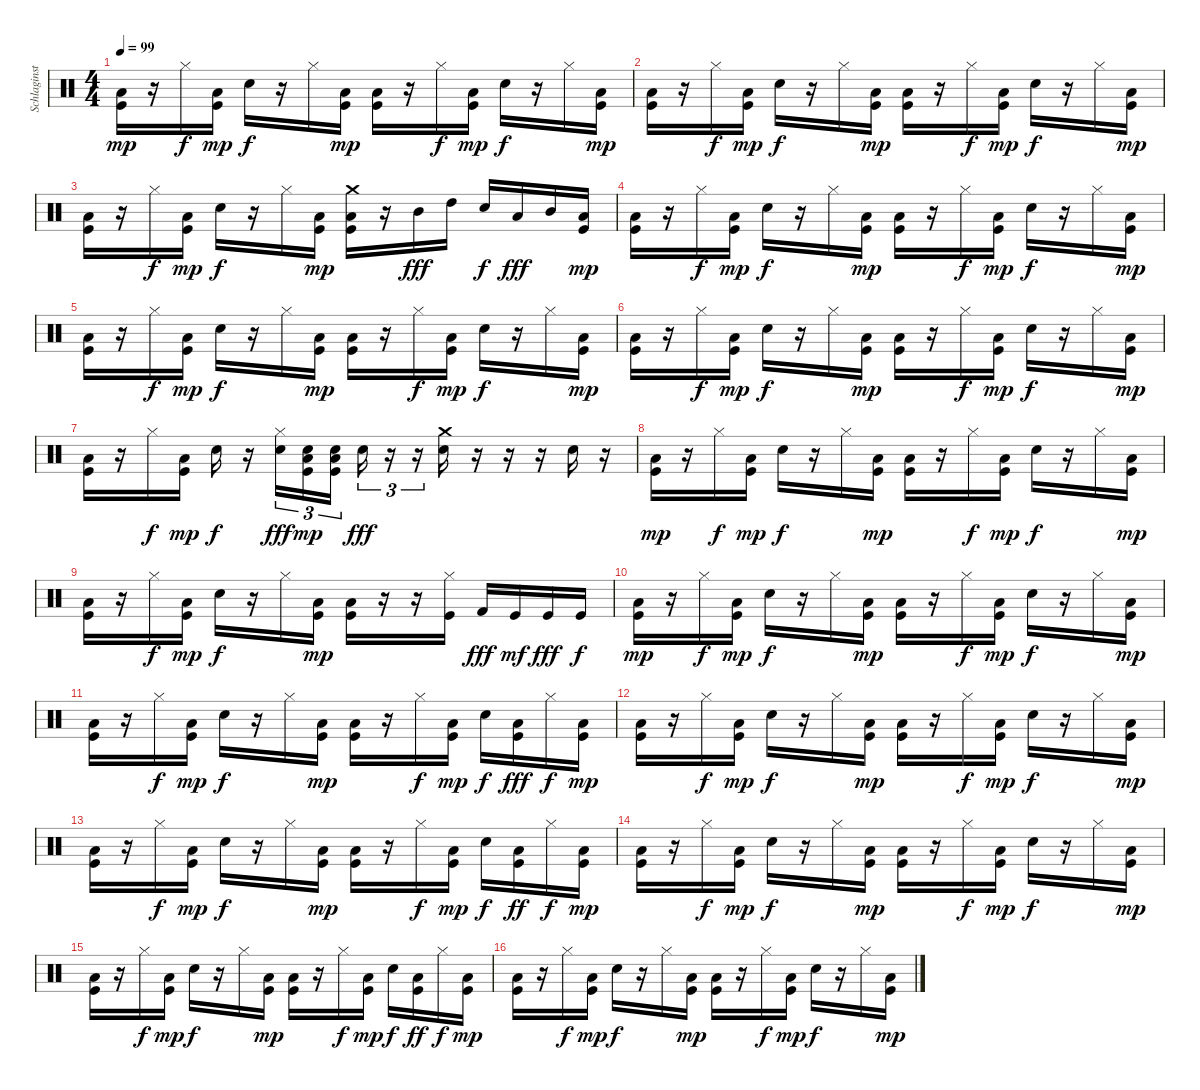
\track ("Schlaginstrumente - Auswahl" "Schlaginst") {instrument percussion}
\staff {score}
\articulation defaults
\ts (4 4)
\tempo 99
\clef neutral
\ks c
("Low Floor Tom (hit)" "Kick (hit)").16{dy mp} r.16 "Hi-Hat (closed)".16{dy f} ("Low Floor Tom (hit)" "Kick (hit)").16{dy mp} "Snare (hit) 2".16{dy f} r.16 "Hi-Hat (closed)".16 ("Low Floor Tom (hit)" "Kick (hit)").16{dy mp} ("Low Floor Tom (hit)" "Kick (hit)").16 r.16 "Hi-Hat (closed)".16{dy f} ("Low Floor Tom (hit)" "Kick (hit)").16{dy mp} "Snare (hit) 2".16{dy f} r.16 "Hi-Hat (closed)".16 ("Low Floor Tom (hit)" "Kick (hit)").16{dy mp} |
("Low Floor Tom (hit)" "Kick (hit)").16 r.16 "Hi-Hat (closed)".16{dy f} ("Low Floor Tom (hit)" "Kick (hit)").16{dy mp} "Snare (hit) 2".16{dy f} r.16 "Hi-Hat (closed)".16 ("Low Floor Tom (hit)" "Kick (hit)").16{dy mp} ("Low Floor Tom (hit)" "Kick (hit)").16 r.16 "Hi-Hat (closed)".16{dy f} ("Low Floor Tom (hit)" "Kick (hit)").16{dy mp} "Snare (hit) 2".16{dy f} r.16 "Hi-Hat (closed)".16 ("Low Floor Tom (hit)" "Kick (hit)").16{dy mp} |
("Low Floor Tom (hit)" "Kick (hit)").16 r.16 "Hi-Hat (closed)".16{dy f} ("Low Floor Tom (hit)" "Kick (hit)").16{dy mp} "Snare (hit) 2".16{dy f} r.16 "Hi-Hat (closed)".16 ("Low Floor Tom (hit)" "Kick (hit)").16{dy mp} ("Crash medium (hit)" "Low Floor Tom (hit)" "Kick (hit)").16 r.16 "Mid Tom (hit)".16{dy fff} "High Tom (hit)".16 "Snare (hit) 2".16{dy f} "Low Tom (hit)".16{dy fff} "Mid Tom (hit)".16 ("Low Floor Tom (hit)" "Kick (hit)").16{dy mp} |
("Low Floor Tom (hit)" "Kick (hit)").16 r.16 "Hi-Hat (closed)".16{dy f} ("Low Floor Tom (hit)" "Kick (hit)").16{dy mp} "Snare (hit) 2".16{dy f} r.16 "Hi-Hat (closed)".16 ("Low Floor Tom (hit)" "Kick (hit)").16{dy mp} ("Low Floor Tom (hit)" "Kick (hit)").16 r.16 "Hi-Hat (closed)".16{dy f} ("Low Floor Tom (hit)" "Kick (hit)").16{dy mp} "Snare (hit) 2".16{dy f} r.16 "Hi-Hat (closed)".16 ("Low Floor Tom (hit)" "Kick (hit)").16{dy mp} |
("Low Floor Tom (hit)" "Kick (hit)").16 r.16 "Hi-Hat (closed)".16{dy f} ("Low Floor Tom (hit)" "Kick (hit)").16{dy mp} "Snare (hit) 2".16{dy f} r.16 "Hi-Hat (closed)".16 ("Low Floor Tom (hit)" "Kick (hit)").16{dy mp} ("Low Floor Tom (hit)" "Kick (hit)").16 r.16 "Hi-Hat (closed)".16{dy f} ("Low Floor Tom (hit)" "Kick (hit)").16{dy mp} "Snare (hit) 2".16{dy f} r.16 "Hi-Hat (closed)".16 ("Low Floor Tom (hit)" "Kick (hit)").16{dy mp} |
("Low Floor Tom (hit)" "Kick (hit)").16 r.16 "Hi-Hat (closed)".16{dy f} ("Low Floor Tom (hit)" "Kick (hit)").16{dy mp} "Snare (hit) 2".16{dy f} r.16 "Hi-Hat (closed)".16 ("Low Floor Tom (hit)" "Kick (hit)").16{dy mp} ("Low Floor Tom (hit)" "Kick (hit)").16 r.16 "Hi-Hat (closed)".16{dy f} ("Low Floor Tom (hit)" "Kick (hit)").16{dy mp} "Snare (hit) 2".16{dy f} r.16 "Hi-Hat (closed)".16 ("Low Floor Tom (hit)" "Kick (hit)").16{dy mp} |
("Low Floor Tom (hit)" "Kick (hit)").16 r.16 "Hi-Hat (closed)".16{dy f} ("Low Floor Tom (hit)" "Kick (hit)").16{dy mp} "Snare (hit) 2".16{dy f} r.16 ("Hi-Hat (closed)" "Snare (hit) 2").16{tu (3 2) dy fff} ("Snare (hit) 2" "Low Floor Tom (hit)" "Kick (hit)").16{tu (3 2) dy mp} ("Snare (hit) 2" "Low Floor Tom (hit)" "Kick (hit)").16{tu (3 2)} "Snare (hit) 2".16{tu (3 2) dy fff} r.16{tu (3 2)} r.16{tu (3 2)} ("Crash medium (hit)" "Snare (hit) 2").16 r.16 r.16 r.16 "Snare (hit) 2".16 r.16 |
("Low Floor Tom (hit)" "Kick (hit)").16{dy mp} r.16 "Hi-Hat (closed)".16{dy f} ("Low Floor Tom (hit)" "Kick (hit)").16{dy mp} "Snare (hit) 2".16{dy f} r.16 "Hi-Hat (closed)".16 ("Low Floor Tom (hit)" "Kick (hit)").16{dy mp} ("Low Floor Tom (hit)" "Kick (hit)").16 r.16 "Hi-Hat (closed)".16{dy f} ("Low Floor Tom (hit)" "Kick (hit)").16{dy mp} "Snare (hit) 2".16{dy f} r.16 "Hi-Hat (closed)".16 ("Low Floor Tom (hit)" "Kick (hit)").16{dy mp} |
("Low Floor Tom (hit)" "Kick (hit)").16 r.16 "Hi-Hat (closed)".16{dy f} ("Low Floor Tom (hit)" "Kick (hit)").16{dy mp} "Snare (hit) 2".16{dy f} r.16 "Hi-Hat (closed)".16 ("Low Floor Tom (hit)" "Kick (hit)").16{dy mp} ("Low Floor Tom (hit)" "Kick (hit)").16 r.16 r.16 ("Hi-Hat (closed)" "Kick (hit)").16 "Kick (hit) 2".16{dy fff} "Kick (hit)".16{dy mf} "Kick (hit)".16{dy fff} "Kick (hit)".16{dy f} |
("Low Floor Tom (hit)" "Kick (hit)").16{dy mp} r.16 "Hi-Hat (closed)".16{dy f} ("Low Floor Tom (hit)" "Kick (hit)").16{dy mp} "Snare (hit) 2".16{dy f} r.16 "Hi-Hat (closed)".16 ("Low Floor Tom (hit)" "Kick (hit)").16{dy mp} ("Low Floor Tom (hit)" "Kick (hit)").16 r.16 "Hi-Hat (closed)".16{dy f} ("Low Floor Tom (hit)" "Kick (hit)").16{dy mp} "Snare (hit) 2".16{dy f} r.16 "Hi-Hat (closed)".16 ("Low Floor Tom (hit)" "Kick (hit)").16{dy mp} |
("Low Floor Tom (hit)" "Kick (hit)").16 r.16 "Hi-Hat (closed)".16{dy f} ("Low Floor Tom (hit)" "Kick (hit)").16{dy mp} "Snare (hit) 2".16{dy f} r.16 "Hi-Hat (closed)".16 ("Low Floor Tom (hit)" "Kick (hit)").16{dy mp} ("Low Floor Tom (hit)" "Kick (hit)").16 r.16 "Hi-Hat (closed)".16{dy f} ("Low Floor Tom (hit)" "Kick (hit)").16{dy mp} "Snare (hit) 2".16{dy f} ("Low Floor Tom (hit)" "Kick (hit)").16{dy fff} "Hi-Hat (closed)".16{dy f} ("Low Floor Tom (hit)" "Kick (hit)").16{dy mp} |
("Low Floor Tom (hit)" "Kick (hit)").16 r.16 "Hi-Hat (closed)".16{dy f} ("Low Floor Tom (hit)" "Kick (hit)").16{dy mp} "Snare (hit) 2".16{dy f} r.16 "Hi-Hat (closed)".16 ("Low Floor Tom (hit)" "Kick (hit)").16{dy mp} ("Low Floor Tom (hit)" "Kick (hit)").16 r.16 "Hi-Hat (closed)".16{dy f} ("Low Floor Tom (hit)" "Kick (hit)").16{dy mp} "Snare (hit) 2".16{dy f} r.16 "Hi-Hat (closed)".16 ("Low Floor Tom (hit)" "Kick (hit)").16{dy mp} |
("Low Floor Tom (hit)" "Kick (hit)").16 r.16 "Hi-Hat (closed)".16{dy f} ("Low Floor Tom (hit)" "Kick (hit)").16{dy mp} "Snare (hit) 2".16{dy f} r.16 "Hi-Hat (closed)".16 ("Low Floor Tom (hit)" "Kick (hit)").16{dy mp} ("Low Floor Tom (hit)" "Kick (hit)").16 r.16 "Hi-Hat (closed)".16{dy f} ("Low Floor Tom (hit)" "Kick (hit)").16{dy mp} "Snare (hit) 2".16{dy f} ("Low Floor Tom (hit)" "Kick (hit)").16{dy ff} "Hi-Hat (closed)".16{dy f} ("Low Floor Tom (hit)" "Kick (hit)").16{dy mp} |
("Low Floor Tom (hit)" "Kick (hit)").16 r.16 "Hi-Hat (closed)".16{dy f} ("Low Floor Tom (hit)" "Kick (hit)").16{dy mp} "Snare (hit) 2".16{dy f} r.16 "Hi-Hat (closed)".16 ("Low Floor Tom (hit)" "Kick (hit)").16{dy mp} ("Low Floor Tom (hit)" "Kick (hit)").16 r.16 "Hi-Hat (closed)".16{dy f} ("Low Floor Tom (hit)" "Kick (hit)").16{dy mp} "Snare (hit) 2".16{dy f} r.16 "Hi-Hat (closed)".16 ("Low Floor Tom (hit)" "Kick (hit)").16{dy mp} |
("Low Floor Tom (hit)" "Kick (hit)").16 r.16 "Hi-Hat (closed)".16{dy f} ("Low Floor Tom (hit)" "Kick (hit)").16{dy mp} "Snare (hit) 2".16{dy f} r.16 "Hi-Hat (closed)".16 ("Low Floor Tom (hit)" "Kick (hit)").16{dy mp} ("Low Floor Tom (hit)" "Kick (hit)").16 r.16 "Hi-Hat (closed)".16{dy f} ("Low Floor Tom (hit)" "Kick (hit)").16{dy mp} "Snare (hit) 2".16{dy f} ("Low Floor Tom (hit)" "Kick (hit)").16{dy ff} "Hi-Hat (closed)".16{dy f} ("Low Floor Tom (hit)" "Kick (hit)").16{dy mp} |
("Low Floor Tom (hit)" "Kick (hit)").16 r.16 "Hi-Hat (closed)".16{dy f} ("Low Floor Tom (hit)" "Kick (hit)").16{dy mp} "Snare (hit) 2".16{dy f} r.16 "Hi-Hat (closed)".16 ("Low Floor Tom (hit)" "Kick (hit)").16{dy mp} ("Low Floor Tom (hit)" "Kick (hit)").16 r.16 "Hi-Hat (closed)".16{dy f} ("Low Floor Tom (hit)" "Kick (hit)").16{dy mp} "Snare (hit) 2".16{dy f} r.16 "Hi-Hat (closed)".16 ("Low Floor Tom (hit)" "Kick (hit)").16{dy mp}
